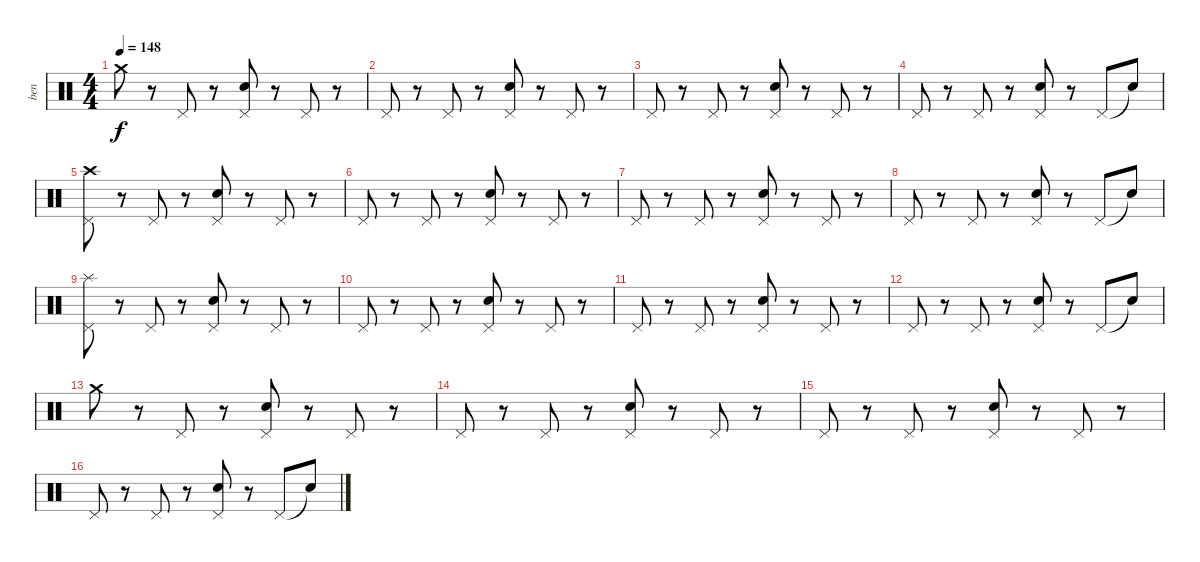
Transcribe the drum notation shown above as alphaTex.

\track ("ben" "ben") {instrument percussion}
\staff {score}
\articulation defaults
\ts (4 4)
\tempo 148
\clef neutral
\ks c "Crash medium (hit)".8{dy f}
r.8 "Pedal Hi-Hat (hit)".8 r.8 ("Electric Snare (hit)" "Pedal Hi-Hat (hit)").8 r.8 "Pedal Hi-Hat (hit)".8 r.8 |
"Pedal Hi-Hat (hit)".8 r.8 "Pedal Hi-Hat (hit)".8 r.8 ("Electric Snare (hit)" "Pedal Hi-Hat (hit)").8 r.8 "Pedal Hi-Hat (hit)".8 r.8 |
"Pedal Hi-Hat (hit)".8 r.8 "Pedal Hi-Hat (hit)".8 r.8 ("Electric Snare (hit)" "Pedal Hi-Hat (hit)").8 r.8 "Pedal Hi-Hat (hit)".8 r.8 |
"Pedal Hi-Hat (hit)".8 r.8 "Pedal Hi-Hat (hit)".8 r.8 ("Electric Snare (hit)" "Pedal Hi-Hat (hit)").8 r.8 "Pedal Hi-Hat (hit)".8 "Snare (hit)"{t}.8 |
("Crash high (hit)" "Pedal Hi-Hat (hit)").8 r.8 "Pedal Hi-Hat (hit)".8 r.8 ("Electric Snare (hit)" "Pedal Hi-Hat (hit)").8 r.8 "Pedal Hi-Hat (hit)".8 r.8 |
"Pedal Hi-Hat (hit)".8 r.8 "Pedal Hi-Hat (hit)".8 r.8 ("Electric Snare (hit)" "Pedal Hi-Hat (hit)").8 r.8 "Pedal Hi-Hat (hit)".8 r.8 |
"Pedal Hi-Hat (hit)".8 r.8 "Pedal Hi-Hat (hit)".8 r.8 ("Electric Snare (hit)" "Pedal Hi-Hat (hit)").8 r.8 "Pedal Hi-Hat (hit)".8 r.8 |
"Pedal Hi-Hat (hit)".8 r.8 "Pedal Hi-Hat (hit)".8 r.8 ("Electric Snare (hit)" "Pedal Hi-Hat (hit)").8 r.8 "Pedal Hi-Hat (hit)".8 "Snare (hit)"{t}.8 |
("Splash (hit)" "Pedal Hi-Hat (hit)").8 r.8 "Pedal Hi-Hat (hit)".8 r.8 ("Electric Snare (hit)" "Pedal Hi-Hat (hit)").8 r.8 "Pedal Hi-Hat (hit)".8 r.8 |
"Pedal Hi-Hat (hit)".8 r.8 "Pedal Hi-Hat (hit)".8 r.8 ("Electric Snare (hit)" "Pedal Hi-Hat (hit)").8 r.8 "Pedal Hi-Hat (hit)".8 r.8 |
"Pedal Hi-Hat (hit)".8 r.8 "Pedal Hi-Hat (hit)".8 r.8 ("Electric Snare (hit)" "Pedal Hi-Hat (hit)").8 r.8 "Pedal Hi-Hat (hit)".8 r.8 |
"Pedal Hi-Hat (hit)".8 r.8 "Pedal Hi-Hat (hit)".8 r.8 ("Electric Snare (hit)" "Pedal Hi-Hat (hit)").8 r.8 "Pedal Hi-Hat (hit)".8 "Snare (hit)"{t}.8 |
"Crash medium (hit)".8 r.8 "Pedal Hi-Hat (hit)".8 r.8 ("Electric Snare (hit)" "Pedal Hi-Hat (hit)").8 r.8 "Pedal Hi-Hat (hit)".8 r.8 |
"Pedal Hi-Hat (hit)".8 r.8 "Pedal Hi-Hat (hit)".8 r.8 ("Electric Snare (hit)" "Pedal Hi-Hat (hit)").8 r.8 "Pedal Hi-Hat (hit)".8 r.8 |
"Pedal Hi-Hat (hit)".8 r.8 "Pedal Hi-Hat (hit)".8 r.8 ("Electric Snare (hit)" "Pedal Hi-Hat (hit)").8 r.8 "Pedal Hi-Hat (hit)".8 r.8 |
"Pedal Hi-Hat (hit)".8 r.8 "Pedal Hi-Hat (hit)".8 r.8 ("Electric Snare (hit)" "Pedal Hi-Hat (hit)").8 r.8 "Pedal Hi-Hat (hit)".8 "Snare (hit)"{t}.8
